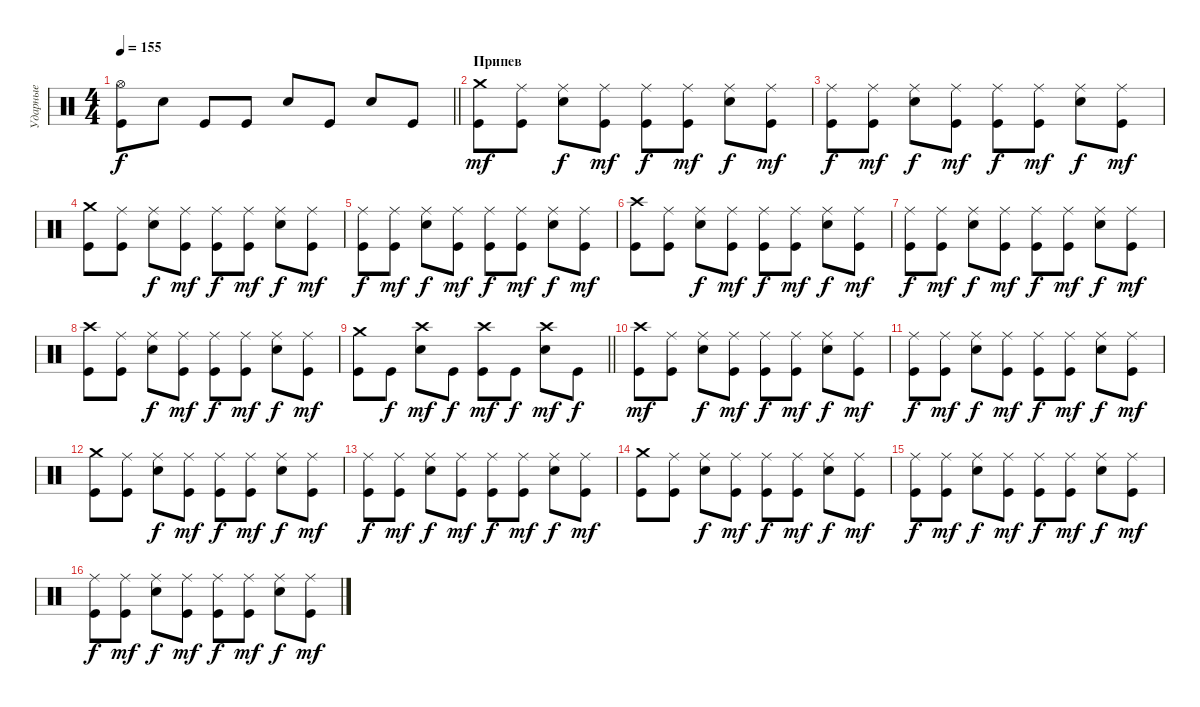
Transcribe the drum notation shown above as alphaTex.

\track ("Ударные" "Ударные") {instrument percussion}
\staff {score}
\articulation defaults
\ts (4 4)
\tempo 155
\clef neutral
\barLineRight lightlight
\ks c
("Hi-Hat (open)" "Kick (hit)").8{dy f} "Electric Snare (hit)".8 "Kick (hit)".8 "Kick (hit)".8 "Electric Snare (hit)".8 "Kick (hit)".8 "Electric Snare (hit)".8 "Kick (hit)".8 |
\section ("" "Припев")
("Crash medium (hit)" "Kick (hit)").8{dy mf} ("Ride (middle)" "Kick (hit)").8 ("Ride (middle)" "Electric Snare (hit)").8{dy f} ("Ride (middle)" "Kick (hit)").8{dy mf} ("Ride (middle)" "Kick (hit)").8{dy f} ("Ride (middle)" "Kick (hit)").8{dy mf} ("Ride (middle)" "Electric Snare (hit)").8{dy f} ("Ride (middle)" "Kick (hit)").8{dy mf} |
("Ride (middle)" "Kick (hit)").8{dy f} ("Ride (middle)" "Kick (hit)").8{dy mf} ("Ride (middle)" "Electric Snare (hit)").8{dy f} ("Ride (middle)" "Kick (hit)").8{dy mf} ("Ride (middle)" "Kick (hit)").8{dy f} ("Ride (middle)" "Kick (hit)").8{dy mf} ("Ride (middle)" "Electric Snare (hit)").8{dy f} ("Ride (middle)" "Kick (hit)").8{dy mf} |
("Crash medium (hit)" "Kick (hit)").8 ("Ride (middle)" "Kick (hit)").8 ("Ride (middle)" "Electric Snare (hit)").8{dy f} ("Ride (middle)" "Kick (hit)").8{dy mf} ("Ride (middle)" "Kick (hit)").8{dy f} ("Ride (middle)" "Kick (hit)").8{dy mf} ("Ride (middle)" "Electric Snare (hit)").8{dy f} ("Ride (middle)" "Kick (hit)").8{dy mf} |
("Ride (middle)" "Kick (hit)").8{dy f} ("Ride (middle)" "Kick (hit)").8{dy mf} ("Ride (middle)" "Electric Snare (hit)").8{dy f} ("Ride (middle)" "Kick (hit)").8{dy mf} ("Ride (middle)" "Kick (hit)").8{dy f} ("Ride (middle)" "Kick (hit)").8{dy mf} ("Ride (middle)" "Electric Snare (hit)").8{dy f} ("Ride (middle)" "Kick (hit)").8{dy mf} |
("Crash high (hit)" "Kick (hit)").8 ("Ride (middle)" "Kick (hit)").8 ("Ride (middle)" "Electric Snare (hit)").8{dy f} ("Ride (middle)" "Kick (hit)").8{dy mf} ("Ride (middle)" "Kick (hit)").8{dy f} ("Ride (middle)" "Kick (hit)").8{dy mf} ("Ride (middle)" "Electric Snare (hit)").8{dy f} ("Ride (middle)" "Kick (hit)").8{dy mf} |
("Ride (middle)" "Kick (hit)").8{dy f} ("Ride (middle)" "Kick (hit)").8{dy mf} ("Ride (middle)" "Electric Snare (hit)").8{dy f} ("Ride (middle)" "Kick (hit)").8{dy mf} ("Ride (middle)" "Kick (hit)").8{dy f} ("Ride (middle)" "Kick (hit)").8{dy mf} ("Ride (middle)" "Electric Snare (hit)").8{dy f} ("Ride (middle)" "Kick (hit)").8{dy mf} |
("Crash high (hit)" "Kick (hit)").8 ("Ride (middle)" "Kick (hit)").8 ("Ride (middle)" "Electric Snare (hit)").8{dy f} ("Ride (middle)" "Kick (hit)").8{dy mf} ("Ride (middle)" "Kick (hit)").8{dy f} ("Ride (middle)" "Kick (hit)").8{dy mf} ("Ride (middle)" "Electric Snare (hit)").8{dy f} ("Ride (middle)" "Kick (hit)").8{dy mf} |
\barLineRight lightlight
("Crash medium (hit)" "Kick (hit)").8 "Kick (hit)".8{dy f} ("Crash high (hit)" "Electric Snare (hit)").8{dy mf} "Kick (hit)".8{dy f} ("Crash high (hit)" "Kick (hit)").8{dy mf} "Kick (hit)".8{dy f} ("Crash high (hit)" "Electric Snare (hit)").8{dy mf} "Kick (hit)".8{dy f} |
\section ("" " ")
("Crash high (hit)" "Kick (hit)").8{dy mf} ("Ride (middle)" "Kick (hit)").8 ("Ride (middle)" "Electric Snare (hit)").8{dy f} ("Ride (middle)" "Kick (hit)").8{dy mf} ("Ride (middle)" "Kick (hit)").8{dy f} ("Ride (middle)" "Kick (hit)").8{dy mf} ("Ride (middle)" "Electric Snare (hit)").8{dy f} ("Ride (middle)" "Kick (hit)").8{dy mf} |
("Ride (middle)" "Kick (hit)").8{dy f} ("Ride (middle)" "Kick (hit)").8{dy mf} ("Ride (middle)" "Electric Snare (hit)").8{dy f} ("Ride (middle)" "Kick (hit)").8{dy mf} ("Ride (middle)" "Kick (hit)").8{dy f} ("Ride (middle)" "Kick (hit)").8{dy mf} ("Ride (middle)" "Electric Snare (hit)").8{dy f} ("Ride (middle)" "Kick (hit)").8{dy mf} |
("Crash medium (hit)" "Kick (hit)").8 ("Ride (middle)" "Kick (hit)").8 ("Ride (middle)" "Electric Snare (hit)").8{dy f} ("Ride (middle)" "Kick (hit)").8{dy mf} ("Ride (middle)" "Kick (hit)").8{dy f} ("Ride (middle)" "Kick (hit)").8{dy mf} ("Ride (middle)" "Electric Snare (hit)").8{dy f} ("Ride (middle)" "Kick (hit)").8{dy mf} |
("Ride (middle)" "Kick (hit)").8{dy f} ("Ride (middle)" "Kick (hit)").8{dy mf} ("Ride (middle)" "Electric Snare (hit)").8{dy f} ("Ride (middle)" "Kick (hit)").8{dy mf} ("Ride (middle)" "Kick (hit)").8{dy f} ("Ride (middle)" "Kick (hit)").8{dy mf} ("Ride (middle)" "Electric Snare (hit)").8{dy f} ("Ride (middle)" "Kick (hit)").8{dy mf} |
("Crash medium (hit)" "Kick (hit)").8 ("Ride (middle)" "Kick (hit)").8 ("Ride (middle)" "Electric Snare (hit)").8{dy f} ("Ride (middle)" "Kick (hit)").8{dy mf} ("Ride (middle)" "Kick (hit)").8{dy f} ("Ride (middle)" "Kick (hit)").8{dy mf} ("Ride (middle)" "Electric Snare (hit)").8{dy f} ("Ride (middle)" "Kick (hit)").8{dy mf} |
("Ride (middle)" "Kick (hit)").8{dy f} ("Ride (middle)" "Kick (hit)").8{dy mf} ("Ride (middle)" "Electric Snare (hit)").8{dy f} ("Ride (middle)" "Kick (hit)").8{dy mf} ("Ride (middle)" "Kick (hit)").8{dy f} ("Ride (middle)" "Kick (hit)").8{dy mf} ("Ride (middle)" "Electric Snare (hit)").8{dy f} ("Ride (middle)" "Kick (hit)").8{dy mf} |
("Ride (middle)" "Kick (hit)").8{dy f} ("Ride (middle)" "Kick (hit)").8{dy mf} ("Ride (middle)" "Electric Snare (hit)").8{dy f} ("Ride (middle)" "Kick (hit)").8{dy mf} ("Ride (middle)" "Kick (hit)").8{dy f} ("Ride (middle)" "Kick (hit)").8{dy mf} ("Ride (middle)" "Electric Snare (hit)").8{dy f} ("Ride (middle)" "Kick (hit)").8{dy mf}
